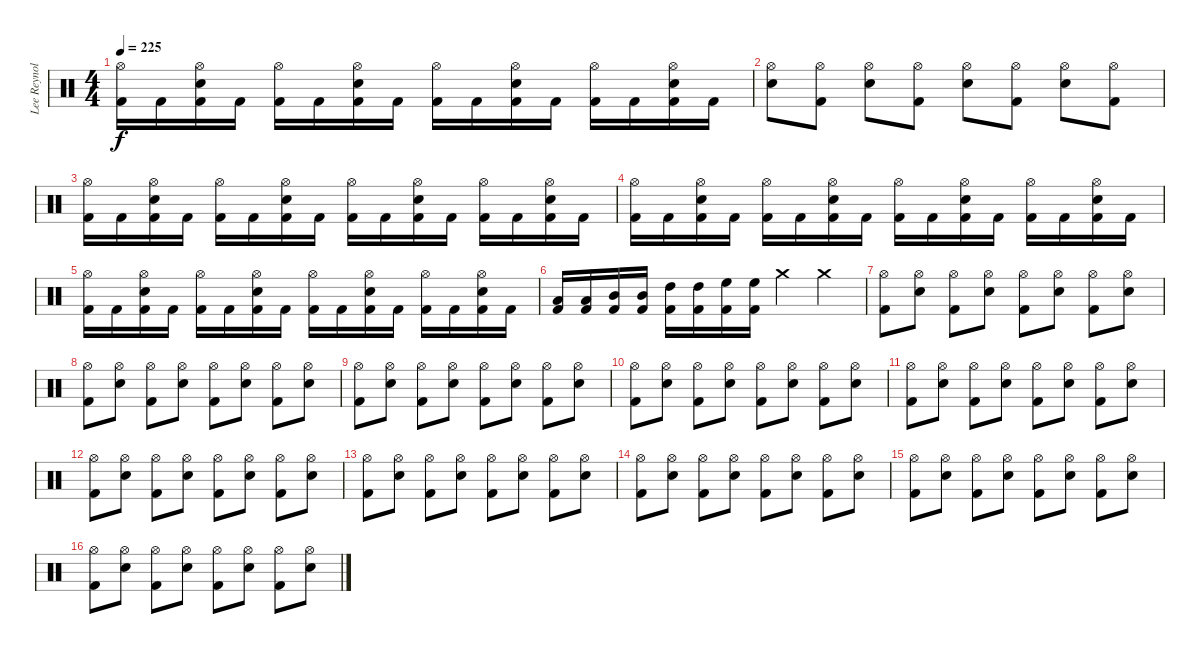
\track ("Lee Reynolds" "Lee Reynol") {instrument percussion}
\staff {score}
\articulation defaults
\ts (4 4)
\tempo 225
\clef neutral
\ks c
("Hi-Hat (open)" "Kick (hit) 2").16{dy f} "Kick (hit) 2".16 ("Hi-Hat (open)" "Snare (hit) 2" "Kick (hit) 2").16 "Kick (hit) 2".16 ("Hi-Hat (open)" "Kick (hit) 2").16 "Kick (hit) 2".16 ("Hi-Hat (open)" "Snare (hit) 2" "Kick (hit) 2").16 "Kick (hit) 2".16 ("Hi-Hat (open)" "Kick (hit) 2").16 "Kick (hit) 2".16 ("Hi-Hat (open)" "Snare (hit) 2" "Kick (hit) 2").16 "Kick (hit) 2".16 ("Hi-Hat (open)" "Kick (hit) 2").16 "Kick (hit) 2".16 ("Hi-Hat (open)" "Snare (hit) 2" "Kick (hit) 2").16 "Kick (hit) 2".16 |
("Hi-Hat (open)" "Snare (hit) 2").8 ("Hi-Hat (open)" "Kick (hit) 2").8 ("Hi-Hat (open)" "Snare (hit) 2").8 ("Hi-Hat (open)" "Kick (hit) 2").8 ("Hi-Hat (open)" "Snare (hit) 2").8 ("Hi-Hat (open)" "Kick (hit) 2").8 ("Hi-Hat (open)" "Snare (hit) 2").8 ("Hi-Hat (open)" "Kick (hit) 2").8 |
("Hi-Hat (open)" "Kick (hit) 2").16 "Kick (hit) 2".16 ("Hi-Hat (open)" "Snare (hit) 2" "Kick (hit) 2").16 "Kick (hit) 2".16 ("Hi-Hat (open)" "Kick (hit) 2").16 "Kick (hit) 2".16 ("Hi-Hat (open)" "Snare (hit) 2" "Kick (hit) 2").16 "Kick (hit) 2".16 ("Hi-Hat (open)" "Kick (hit) 2").16 "Kick (hit) 2".16 ("Hi-Hat (open)" "Snare (hit) 2" "Kick (hit) 2").16 "Kick (hit) 2".16 ("Hi-Hat (open)" "Kick (hit) 2").16 "Kick (hit) 2".16 ("Hi-Hat (open)" "Snare (hit) 2" "Kick (hit) 2").16 "Kick (hit) 2".16 |
("Hi-Hat (open)" "Kick (hit) 2").16 "Kick (hit) 2".16 ("Hi-Hat (open)" "Snare (hit) 2" "Kick (hit) 2").16 "Kick (hit) 2".16 ("Hi-Hat (open)" "Kick (hit) 2").16 "Kick (hit) 2".16 ("Hi-Hat (open)" "Snare (hit) 2" "Kick (hit) 2").16 "Kick (hit) 2".16 ("Hi-Hat (open)" "Kick (hit) 2").16 "Kick (hit) 2".16 ("Hi-Hat (open)" "Snare (hit) 2" "Kick (hit) 2").16 "Kick (hit) 2".16 ("Hi-Hat (open)" "Kick (hit) 2").16 "Kick (hit) 2".16 ("Hi-Hat (open)" "Snare (hit) 2" "Kick (hit) 2").16 "Kick (hit) 2".16 |
("Hi-Hat (open)" "Kick (hit) 2").16 "Kick (hit) 2".16 ("Hi-Hat (open)" "Snare (hit) 2" "Kick (hit) 2").16 "Kick (hit) 2".16 ("Hi-Hat (open)" "Kick (hit) 2").16 "Kick (hit) 2".16 ("Hi-Hat (open)" "Snare (hit) 2" "Kick (hit) 2").16 "Kick (hit) 2".16 ("Hi-Hat (open)" "Kick (hit) 2").16 "Kick (hit) 2".16 ("Hi-Hat (open)" "Snare (hit) 2" "Kick (hit) 2").16 "Kick (hit) 2".16 ("Hi-Hat (open)" "Kick (hit) 2").16 "Kick (hit) 2".16 ("Hi-Hat (open)" "Snare (hit) 2" "Kick (hit) 2").16 "Kick (hit) 2".16 |
("Low Tom (hit)" "Kick (hit) 2").16 ("Low Tom (hit)" "Kick (hit) 2").16 ("Mid Tom (hit)" "Kick (hit) 2").16 ("Mid Tom (hit)" "Kick (hit) 2").16 ("High Tom (hit)" "Kick (hit) 2").16 ("High Tom (hit)" "Kick (hit) 2").16 ("High Floor Tom (hit)" "Kick (hit) 2").16 ("High Floor Tom (hit)" "Kick (hit) 2").16 "Crash medium (hit)".4 "Crash medium (hit)".4 |
("Hi-Hat (open)" "Kick (hit) 2").8 ("Hi-Hat (open)" "Snare (hit) 2").8 ("Hi-Hat (open)" "Kick (hit) 2").8 ("Hi-Hat (open)" "Snare (hit) 2").8 ("Hi-Hat (open)" "Kick (hit) 2").8 ("Hi-Hat (open)" "Snare (hit) 2").8 ("Hi-Hat (open)" "Kick (hit) 2").8 ("Hi-Hat (open)" "Snare (hit) 2").8 |
("Hi-Hat (open)" "Kick (hit) 2").8 ("Hi-Hat (open)" "Snare (hit) 2").8 ("Hi-Hat (open)" "Kick (hit) 2").8 ("Hi-Hat (open)" "Snare (hit) 2").8 ("Hi-Hat (open)" "Kick (hit) 2").8 ("Hi-Hat (open)" "Snare (hit) 2").8 ("Hi-Hat (open)" "Kick (hit) 2").8 ("Hi-Hat (open)" "Snare (hit) 2").8 |
("Hi-Hat (open)" "Kick (hit) 2").8 ("Hi-Hat (open)" "Snare (hit) 2").8 ("Hi-Hat (open)" "Kick (hit) 2").8 ("Hi-Hat (open)" "Snare (hit) 2").8 ("Hi-Hat (open)" "Kick (hit) 2").8 ("Hi-Hat (open)" "Snare (hit) 2").8 ("Hi-Hat (open)" "Kick (hit) 2").8 ("Hi-Hat (open)" "Snare (hit) 2").8 |
("Hi-Hat (open)" "Kick (hit) 2").8 ("Hi-Hat (open)" "Snare (hit) 2").8 ("Hi-Hat (open)" "Kick (hit) 2").8 ("Hi-Hat (open)" "Snare (hit) 2").8 ("Hi-Hat (open)" "Kick (hit) 2").8 ("Hi-Hat (open)" "Snare (hit) 2").8 ("Hi-Hat (open)" "Kick (hit) 2").8 ("Hi-Hat (open)" "Snare (hit) 2").8 |
("Hi-Hat (open)" "Kick (hit) 2").8 ("Hi-Hat (open)" "Snare (hit) 2").8 ("Hi-Hat (open)" "Kick (hit) 2").8 ("Hi-Hat (open)" "Snare (hit) 2").8 ("Hi-Hat (open)" "Kick (hit) 2").8 ("Hi-Hat (open)" "Snare (hit) 2").8 ("Hi-Hat (open)" "Kick (hit) 2").8 ("Hi-Hat (open)" "Snare (hit) 2").8 |
("Hi-Hat (open)" "Kick (hit) 2").8 ("Hi-Hat (open)" "Snare (hit) 2").8 ("Hi-Hat (open)" "Kick (hit) 2").8 ("Hi-Hat (open)" "Snare (hit) 2").8 ("Hi-Hat (open)" "Kick (hit) 2").8 ("Hi-Hat (open)" "Snare (hit) 2").8 ("Hi-Hat (open)" "Kick (hit) 2").8 ("Hi-Hat (open)" "Snare (hit) 2").8 |
("Hi-Hat (open)" "Kick (hit) 2").8 ("Hi-Hat (open)" "Snare (hit) 2").8 ("Hi-Hat (open)" "Kick (hit) 2").8 ("Hi-Hat (open)" "Snare (hit) 2").8 ("Hi-Hat (open)" "Kick (hit) 2").8 ("Hi-Hat (open)" "Snare (hit) 2").8 ("Hi-Hat (open)" "Kick (hit) 2").8 ("Hi-Hat (open)" "Snare (hit) 2").8 |
("Hi-Hat (open)" "Kick (hit) 2").8 ("Hi-Hat (open)" "Snare (hit) 2").8 ("Hi-Hat (open)" "Kick (hit) 2").8 ("Hi-Hat (open)" "Snare (hit) 2").8 ("Hi-Hat (open)" "Kick (hit) 2").8 ("Hi-Hat (open)" "Snare (hit) 2").8 ("Hi-Hat (open)" "Kick (hit) 2").8 ("Hi-Hat (open)" "Snare (hit) 2").8 |
("Hi-Hat (open)" "Kick (hit) 2").8 ("Hi-Hat (open)" "Snare (hit) 2").8 ("Hi-Hat (open)" "Kick (hit) 2").8 ("Hi-Hat (open)" "Snare (hit) 2").8 ("Hi-Hat (open)" "Kick (hit) 2").8 ("Hi-Hat (open)" "Snare (hit) 2").8 ("Hi-Hat (open)" "Kick (hit) 2").8 ("Hi-Hat (open)" "Snare (hit) 2").8 |
("Hi-Hat (open)" "Kick (hit) 2").8 ("Hi-Hat (open)" "Snare (hit) 2").8 ("Hi-Hat (open)" "Kick (hit) 2").8 ("Hi-Hat (open)" "Snare (hit) 2").8 ("Hi-Hat (open)" "Kick (hit) 2").8 ("Hi-Hat (open)" "Snare (hit) 2").8 ("Hi-Hat (open)" "Kick (hit) 2").8 ("Hi-Hat (open)" "Snare (hit) 2").8
